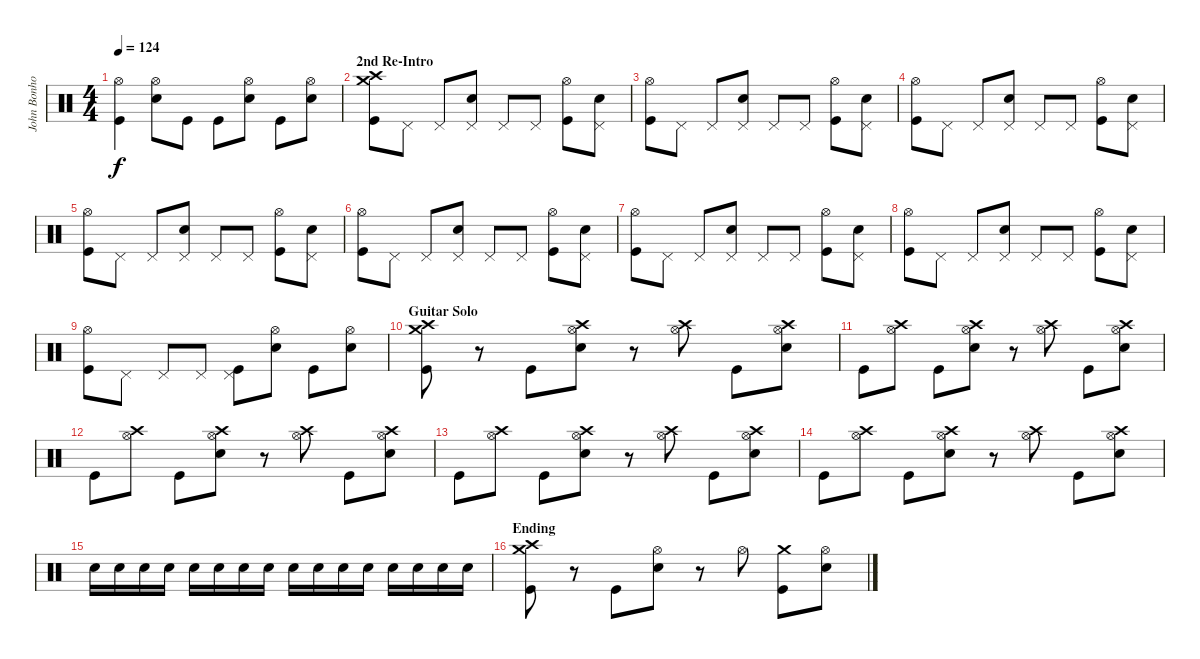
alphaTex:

\track ("John Bonhom" "John Bonho") {instrument percussion}
\staff {score}
\articulation defaults
\ts (4 4)
\tempo 124
\clef neutral
\ks c
("Hi-Hat (open)" "Kick (hit)").4{dy f} ("Hi-Hat (open)" "Electric Snare (hit)").8 "Kick (hit)".8 "Kick (hit)".8 ("Hi-Hat (open)" "Electric Snare (hit)").8 "Kick (hit)".8 ("Hi-Hat (open)" "Electric Snare (hit)").8 |
\section ("" "2nd Re-Intro")
("Crash medium (hit)" "Crash high (hit)" "Kick (hit)").8 "Pedal Hi-Hat (hit)".8 "Pedal Hi-Hat (hit)".8 ("Pedal Hi-Hat (hit)" "Electric Snare (hit)").8 "Pedal Hi-Hat (hit)".8 "Pedal Hi-Hat (hit)".8 ("Hi-Hat (open)" "Kick (hit)").8 ("Pedal Hi-Hat (hit)" "Electric Snare (hit)").8 |
("Hi-Hat (open)" "Kick (hit)").8 "Pedal Hi-Hat (hit)".8 "Pedal Hi-Hat (hit)".8 ("Pedal Hi-Hat (hit)" "Electric Snare (hit)").8 "Pedal Hi-Hat (hit)".8 "Pedal Hi-Hat (hit)".8 ("Hi-Hat (open)" "Kick (hit)").8 ("Pedal Hi-Hat (hit)" "Electric Snare (hit)").8 |
("Hi-Hat (open)" "Kick (hit)").8 "Pedal Hi-Hat (hit)".8 "Pedal Hi-Hat (hit)".8 ("Pedal Hi-Hat (hit)" "Electric Snare (hit)").8 "Pedal Hi-Hat (hit)".8 "Pedal Hi-Hat (hit)".8 ("Hi-Hat (open)" "Kick (hit)").8 ("Pedal Hi-Hat (hit)" "Electric Snare (hit)").8 |
("Hi-Hat (open)" "Kick (hit)").8 "Pedal Hi-Hat (hit)".8 "Pedal Hi-Hat (hit)".8 ("Pedal Hi-Hat (hit)" "Electric Snare (hit)").8 "Pedal Hi-Hat (hit)".8 "Pedal Hi-Hat (hit)".8 ("Hi-Hat (open)" "Kick (hit)").8 ("Pedal Hi-Hat (hit)" "Electric Snare (hit)").8 |
("Hi-Hat (open)" "Kick (hit)").8 "Pedal Hi-Hat (hit)".8 "Pedal Hi-Hat (hit)".8 ("Pedal Hi-Hat (hit)" "Electric Snare (hit)").8 "Pedal Hi-Hat (hit)".8 "Pedal Hi-Hat (hit)".8 ("Hi-Hat (open)" "Kick (hit)").8 ("Pedal Hi-Hat (hit)" "Electric Snare (hit)").8 |
("Hi-Hat (open)" "Kick (hit)").8 "Pedal Hi-Hat (hit)".8 "Pedal Hi-Hat (hit)".8 ("Pedal Hi-Hat (hit)" "Electric Snare (hit)").8 "Pedal Hi-Hat (hit)".8 "Pedal Hi-Hat (hit)".8 ("Hi-Hat (open)" "Kick (hit)").8 ("Pedal Hi-Hat (hit)" "Electric Snare (hit)").8 |
("Hi-Hat (open)" "Kick (hit)").8 "Pedal Hi-Hat (hit)".8 "Pedal Hi-Hat (hit)".8 ("Pedal Hi-Hat (hit)" "Electric Snare (hit)").8 "Pedal Hi-Hat (hit)".8 "Pedal Hi-Hat (hit)".8 ("Hi-Hat (open)" "Kick (hit)").8 ("Pedal Hi-Hat (hit)" "Electric Snare (hit)").8 |
("Hi-Hat (open)" "Kick (hit)").8 "Pedal Hi-Hat (hit)".8 "Pedal Hi-Hat (hit)".8 "Pedal Hi-Hat (hit)".8 ("Pedal Hi-Hat (hit)" "Kick (hit)").8 ("Hi-Hat (open)" "Electric Snare (hit)").8 "Kick (hit)".8 ("Hi-Hat (open)" "Electric Snare (hit)").8 |
\section ("" "Guitar Solo")
("Crash high (hit)" "Crash medium (hit)" "Kick (hit)").8 r.8 "Kick (hit)".8 ("Crash high (hit)" "Hi-Hat (open)" "Electric Snare (hit)").8 r.8 ("Crash high (hit)" "Hi-Hat (open)").8 "Kick (hit)".8 ("Crash high (hit)" "Hi-Hat (open)" "Electric Snare (hit)").8 |
"Kick (hit)".8 ("Crash high (hit)" "Hi-Hat (open)").8 "Kick (hit)".8 ("Crash high (hit)" "Hi-Hat (open)" "Electric Snare (hit)").8 r.8 ("Crash high (hit)" "Hi-Hat (open)").8 "Kick (hit)".8 ("Crash high (hit)" "Hi-Hat (open)" "Electric Snare (hit)").8 |
"Kick (hit)".8 ("Crash high (hit)" "Hi-Hat (open)").8 "Kick (hit)".8 ("Crash high (hit)" "Hi-Hat (open)" "Electric Snare (hit)").8 r.8 ("Crash high (hit)" "Hi-Hat (open)").8 "Kick (hit)".8 ("Crash high (hit)" "Hi-Hat (open)" "Electric Snare (hit)").8 |
"Kick (hit)".8 ("Crash high (hit)" "Hi-Hat (open)").8 "Kick (hit)".8 ("Crash high (hit)" "Hi-Hat (open)" "Electric Snare (hit)").8 r.8 ("Crash high (hit)" "Hi-Hat (open)").8 "Kick (hit)".8 ("Crash high (hit)" "Hi-Hat (open)" "Electric Snare (hit)").8 |
"Kick (hit)".8 ("Crash high (hit)" "Hi-Hat (open)").8 "Kick (hit)".8 ("Crash high (hit)" "Hi-Hat (open)" "Electric Snare (hit)").8 r.8 ("Crash high (hit)" "Hi-Hat (open)").8 "Kick (hit)".8 ("Crash high (hit)" "Hi-Hat (open)" "Electric Snare (hit)").8 |
"Electric Snare (hit)".16 "Electric Snare (hit)".16 "Electric Snare (hit)".16 "Electric Snare (hit)".16 "Electric Snare (hit)".16 "Electric Snare (hit)".16 "Electric Snare (hit)".16 "Electric Snare (hit)".16 "Electric Snare (hit)".16 "Electric Snare (hit)".16 "Electric Snare (hit)".16 "Electric Snare (hit)".16 "Electric Snare (hit)".16 "Electric Snare (hit)".16 "Electric Snare (hit)".16 "Electric Snare (hit)".16 |
\section ("" "Ending")
("Crash medium (hit)" "Crash high (hit)" "Kick (hit)").8 r.8 "Kick (hit)".8 ("Hi-Hat (open)" "Electric Snare (hit)").8 r.8 "Hi-Hat (open)".8 ("Crash medium (hit)" "Kick (hit)").8 ("Hi-Hat (open)" "Electric Snare (hit)").8
